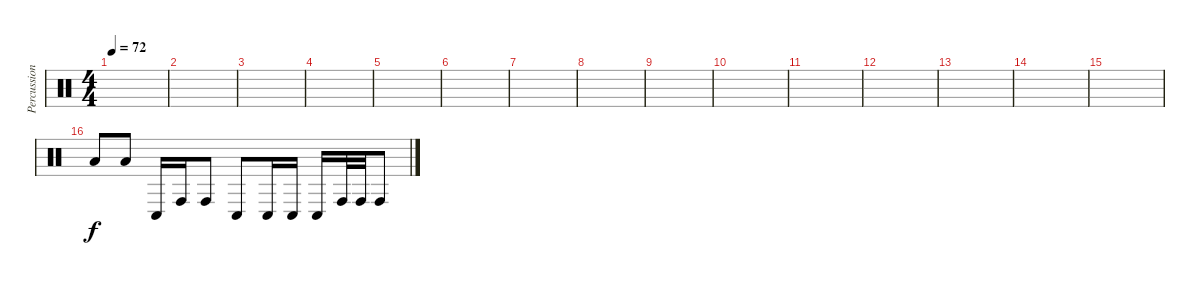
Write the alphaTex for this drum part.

\track ("Percussion" "Percussion") {instrument percussion}
\staff {score}
\articulation defaults
\ts (4 4)
\tempo 72
\clef neutral
\ks c
|
|
|
|
|
|
|
|
|
|
|
|
|
|
|
"Low Tom (hit)".8 "Low Tom (hit)".8 "Conga low (hit)".16 "Conga high (hit)".16 "Conga high (hit)".8 "Conga low (hit)".8 "Conga low (hit)".16 "Conga low (hit)".16 "Conga low (hit)".16 "Conga high (hit)".32 "Conga high (hit)".32 "Conga high (hit)".8
